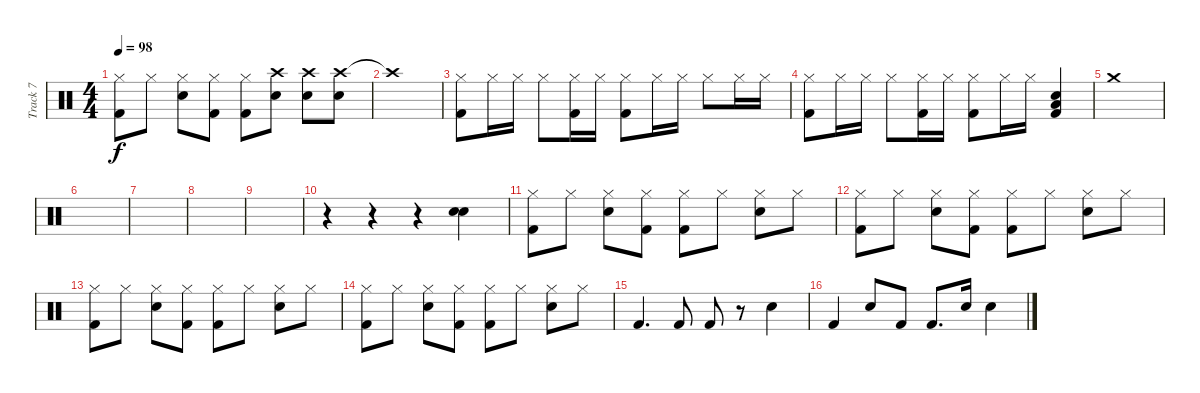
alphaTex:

\track ("Track 7" "Track 7") {instrument percussion}
\staff {score}
\articulation defaults
\ts (4 4)
\tempo 98
\clef neutral
\ks c
("Hi-Hat (closed)" "Kick (hit) 2").8{dy f} "Hi-Hat (closed)".8 ("Hi-Hat (closed)" "Electric Snare (hit)").8 ("Hi-Hat (closed)" "Kick (hit) 2").8 ("Hi-Hat (closed)" "Kick (hit) 2").8 ("Crash high (hit)" "Electric Snare (hit)").8 ("Crash high (hit)" "Electric Snare (hit)").8 ("Crash high (hit)" "Electric Snare (hit)").8 |
"Crash high (hit)"{t}.1 |
("Hi-Hat (closed)" "Kick (hit) 2").8 "Hi-Hat (closed)".16 "Hi-Hat (closed)".16 "Hi-Hat (closed)".8 ("Hi-Hat (closed)" "Kick (hit) 2").16 "Hi-Hat (closed)".16 ("Hi-Hat (closed)" "Kick (hit) 2").8 "Hi-Hat (closed)".16 "Hi-Hat (closed)".16 "Hi-Hat (closed)".8 "Hi-Hat (closed)".16 "Hi-Hat (closed)".16 |
("Hi-Hat (closed)" "Kick (hit) 2").8 "Hi-Hat (closed)".16 "Hi-Hat (closed)".16 "Hi-Hat (closed)".8 ("Hi-Hat (closed)" "Kick (hit) 2").16 "Hi-Hat (closed)".16 ("Hi-Hat (closed)" "Kick (hit) 2").8 "Hi-Hat (closed)".16 "Hi-Hat (closed)".16 ("Kick (hit) 2" "Low Tom (hit)" "Electric Snare (hit)").4 |
"Crash medium (hit)".1 |
|
|
|
|
r.4 r.4 r.4 ("Electric Snare (hit)" "Electric Snare (hit)").4 |
("Hi-Hat (closed)" "Kick (hit) 2").8 "Hi-Hat (closed)".8 ("Hi-Hat (closed)" "Electric Snare (hit)").8 ("Hi-Hat (closed)" "Kick (hit) 2").8 ("Hi-Hat (closed)" "Kick (hit) 2").8 "Hi-Hat (closed)".8 ("Hi-Hat (closed)" "Electric Snare (hit)").8 "Hi-Hat (closed)".8 |
("Hi-Hat (closed)" "Kick (hit) 2").8 "Hi-Hat (closed)".8 ("Hi-Hat (closed)" "Electric Snare (hit)").8 ("Hi-Hat (closed)" "Kick (hit) 2").8 ("Hi-Hat (closed)" "Kick (hit) 2").8 "Hi-Hat (closed)".8 ("Hi-Hat (closed)" "Electric Snare (hit)").8 "Hi-Hat (closed)".8 |
("Hi-Hat (closed)" "Kick (hit) 2").8 "Hi-Hat (closed)".8 ("Hi-Hat (closed)" "Electric Snare (hit)").8 ("Hi-Hat (closed)" "Kick (hit) 2").8 ("Hi-Hat (closed)" "Kick (hit) 2").8 "Hi-Hat (closed)".8 ("Hi-Hat (closed)" "Electric Snare (hit)").8 "Hi-Hat (closed)".8 |
("Hi-Hat (closed)" "Kick (hit) 2").8 "Hi-Hat (closed)".8 ("Hi-Hat (closed)" "Electric Snare (hit)").8 ("Hi-Hat (closed)" "Kick (hit) 2").8 ("Hi-Hat (closed)" "Kick (hit) 2").8 "Hi-Hat (closed)".8 ("Hi-Hat (closed)" "Electric Snare (hit)").8 "Hi-Hat (closed)".8 |
"Kick (hit) 2".4{d} "Kick (hit) 2".8 "Kick (hit) 2".8 r.8 "Electric Snare (hit)".4 |
"Kick (hit) 2".4 "Electric Snare (hit)".8 "Kick (hit) 2".8 "Kick (hit) 2".8{d} "Electric Snare (hit)".16 "Electric Snare (hit)".4
